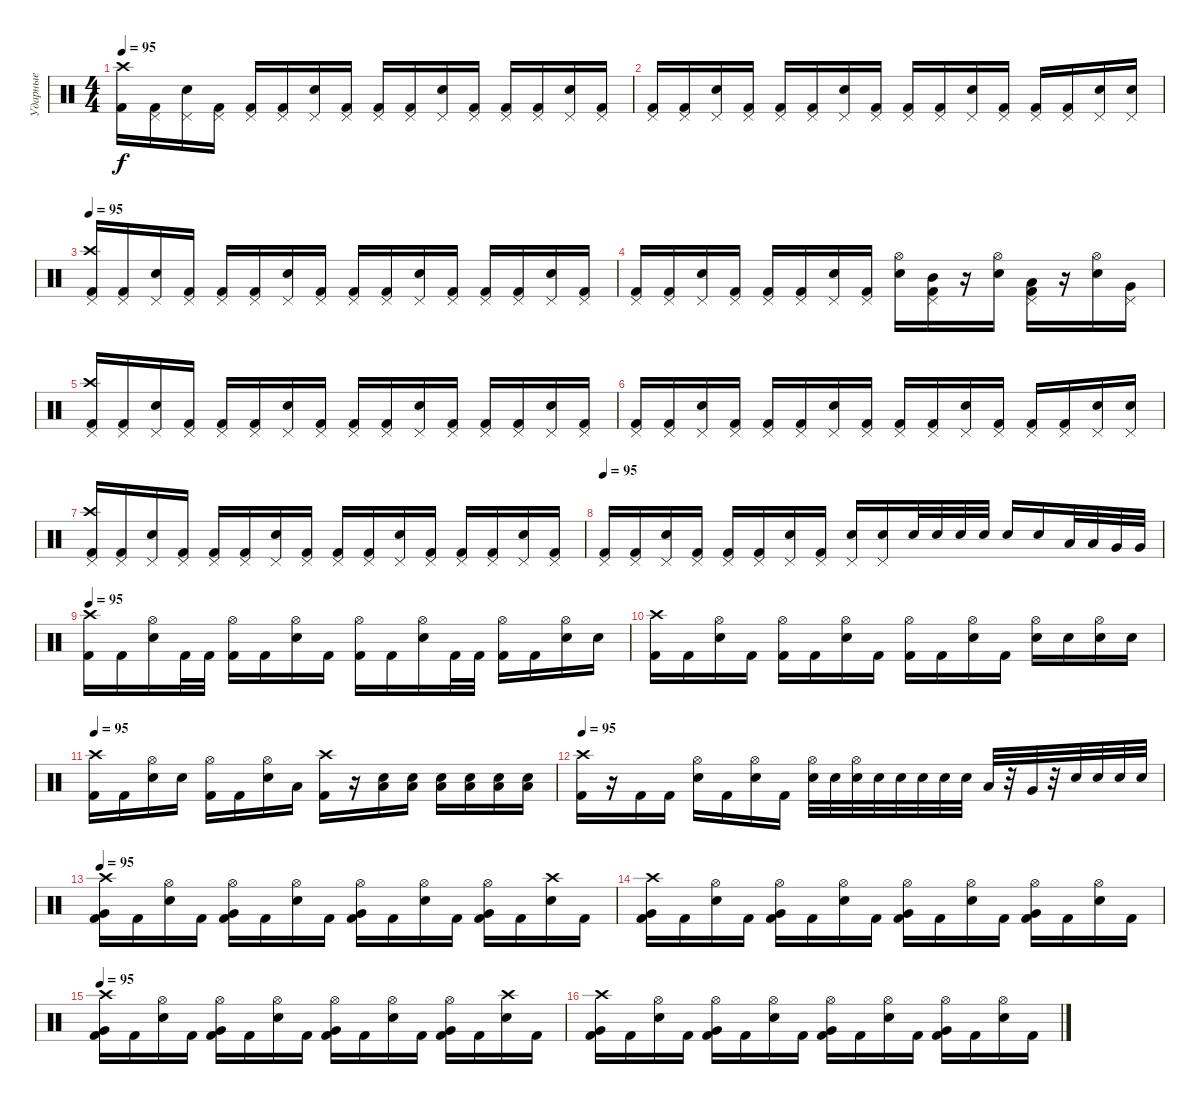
\track ("Ударные" "Ударные") {instrument percussion}
\staff {score}
\articulation defaults
\ts (4 4)
\tempo 95
\clef neutral
\ks c
("Kick (hit) 2" "Crash high (hit)").16{dy f} ("Kick (hit) 2" "Pedal Hi-Hat (hit)").16 ("Electric Snare (hit)" "Pedal Hi-Hat (hit)").16 ("Kick (hit) 2" "Pedal Hi-Hat (hit)").16 ("Kick (hit) 2" "Pedal Hi-Hat (hit)").16 ("Kick (hit) 2" "Pedal Hi-Hat (hit)").16 ("Electric Snare (hit)" "Pedal Hi-Hat (hit)").16 ("Kick (hit) 2" "Pedal Hi-Hat (hit)").16 ("Kick (hit) 2" "Pedal Hi-Hat (hit)").16 ("Kick (hit) 2" "Pedal Hi-Hat (hit)").16 ("Electric Snare (hit)" "Pedal Hi-Hat (hit)").16 ("Kick (hit) 2" "Pedal Hi-Hat (hit)").16 ("Kick (hit) 2" "Pedal Hi-Hat (hit)").16 ("Kick (hit) 2" "Pedal Hi-Hat (hit)").16 ("Electric Snare (hit)" "Pedal Hi-Hat (hit)").16 ("Kick (hit) 2" "Pedal Hi-Hat (hit)").16 |
("Kick (hit) 2" "Pedal Hi-Hat (hit)").16 ("Kick (hit) 2" "Pedal Hi-Hat (hit)").16 ("Electric Snare (hit)" "Pedal Hi-Hat (hit)").16 ("Kick (hit) 2" "Pedal Hi-Hat (hit)").16 ("Kick (hit) 2" "Pedal Hi-Hat (hit)").16 ("Kick (hit) 2" "Pedal Hi-Hat (hit)").16 ("Electric Snare (hit)" "Pedal Hi-Hat (hit)").16 ("Kick (hit) 2" "Pedal Hi-Hat (hit)").16 ("Kick (hit) 2" "Pedal Hi-Hat (hit)").16 ("Kick (hit) 2" "Pedal Hi-Hat (hit)").16 ("Electric Snare (hit)" "Pedal Hi-Hat (hit)").16 ("Kick (hit) 2" "Pedal Hi-Hat (hit)").16 ("Kick (hit) 2" "Pedal Hi-Hat (hit)").16 ("Kick (hit) 2" "Pedal Hi-Hat (hit)").16 ("Electric Snare (hit)" "Pedal Hi-Hat (hit)").16 ("Electric Snare (hit)" "Pedal Hi-Hat (hit)").16 |
\tempo 95
("Kick (hit) 2" "Pedal Hi-Hat (hit)" "Crash high (hit)").16 ("Kick (hit) 2" "Pedal Hi-Hat (hit)").16 ("Electric Snare (hit)" "Pedal Hi-Hat (hit)").16 ("Kick (hit) 2" "Pedal Hi-Hat (hit)").16 ("Kick (hit) 2" "Pedal Hi-Hat (hit)").16 ("Kick (hit) 2" "Pedal Hi-Hat (hit)").16 ("Electric Snare (hit)" "Pedal Hi-Hat (hit)").16 ("Kick (hit) 2" "Pedal Hi-Hat (hit)").16 ("Kick (hit) 2" "Pedal Hi-Hat (hit)").16 ("Kick (hit) 2" "Pedal Hi-Hat (hit)").16 ("Electric Snare (hit)" "Pedal Hi-Hat (hit)").16 ("Kick (hit) 2" "Pedal Hi-Hat (hit)").16 ("Kick (hit) 2" "Pedal Hi-Hat (hit)").16 ("Kick (hit) 2" "Pedal Hi-Hat (hit)").16 ("Electric Snare (hit)" "Pedal Hi-Hat (hit)").16 ("Kick (hit) 2" "Pedal Hi-Hat (hit)").16 |
("Kick (hit) 2" "Pedal Hi-Hat (hit)").16 ("Kick (hit) 2" "Pedal Hi-Hat (hit)").16 ("Electric Snare (hit)" "Pedal Hi-Hat (hit)").16 ("Kick (hit) 2" "Pedal Hi-Hat (hit)").16 ("Kick (hit) 2" "Pedal Hi-Hat (hit)").16 ("Kick (hit) 2" "Pedal Hi-Hat (hit)").16 ("Electric Snare (hit)" "Pedal Hi-Hat (hit)").16 ("Kick (hit) 2" "Pedal Hi-Hat (hit)").16 ("Electric Snare (hit)" "Hi-Hat (open)").16 ("Kick (hit) 2" "Mid Tom (hit)" "Pedal Hi-Hat (hit)").16 r.16 ("Electric Snare (hit)" "Hi-Hat (open)").16 ("Kick (hit) 2" "Low Tom (hit)" "Pedal Hi-Hat (hit)").16 r.16 ("Electric Snare (hit)" "Hi-Hat (open)").16 ("Very Low Tom (hit)" "Pedal Hi-Hat (hit)").16 |
("Kick (hit) 2" "Pedal Hi-Hat (hit)" "Crash high (hit)").16 ("Kick (hit) 2" "Pedal Hi-Hat (hit)").16 ("Electric Snare (hit)" "Pedal Hi-Hat (hit)").16 ("Kick (hit) 2" "Pedal Hi-Hat (hit)").16 ("Kick (hit) 2" "Pedal Hi-Hat (hit)").16 ("Kick (hit) 2" "Pedal Hi-Hat (hit)").16 ("Electric Snare (hit)" "Pedal Hi-Hat (hit)").16 ("Kick (hit) 2" "Pedal Hi-Hat (hit)").16 ("Kick (hit) 2" "Pedal Hi-Hat (hit)").16 ("Kick (hit) 2" "Pedal Hi-Hat (hit)").16 ("Electric Snare (hit)" "Pedal Hi-Hat (hit)").16 ("Kick (hit) 2" "Pedal Hi-Hat (hit)").16 ("Kick (hit) 2" "Pedal Hi-Hat (hit)").16 ("Kick (hit) 2" "Pedal Hi-Hat (hit)").16 ("Electric Snare (hit)" "Pedal Hi-Hat (hit)").16 ("Kick (hit) 2" "Pedal Hi-Hat (hit)").16 |
("Kick (hit) 2" "Pedal Hi-Hat (hit)").16 ("Kick (hit) 2" "Pedal Hi-Hat (hit)").16 ("Electric Snare (hit)" "Pedal Hi-Hat (hit)").16 ("Kick (hit) 2" "Pedal Hi-Hat (hit)").16 ("Kick (hit) 2" "Pedal Hi-Hat (hit)").16 ("Kick (hit) 2" "Pedal Hi-Hat (hit)").16 ("Electric Snare (hit)" "Pedal Hi-Hat (hit)").16 ("Kick (hit) 2" "Pedal Hi-Hat (hit)").16 ("Kick (hit) 2" "Pedal Hi-Hat (hit)").16 ("Kick (hit) 2" "Pedal Hi-Hat (hit)").16 ("Electric Snare (hit)" "Pedal Hi-Hat (hit)").16 ("Kick (hit) 2" "Pedal Hi-Hat (hit)").16 ("Kick (hit) 2" "Pedal Hi-Hat (hit)").16 ("Kick (hit) 2" "Pedal Hi-Hat (hit)").16 ("Electric Snare (hit)" "Pedal Hi-Hat (hit)").16 ("Electric Snare (hit)" "Pedal Hi-Hat (hit)").16 |
("Kick (hit) 2" "Pedal Hi-Hat (hit)" "Crash high (hit)").16 ("Kick (hit) 2" "Pedal Hi-Hat (hit)").16 ("Electric Snare (hit)" "Pedal Hi-Hat (hit)").16 ("Kick (hit) 2" "Pedal Hi-Hat (hit)").16 ("Kick (hit) 2" "Pedal Hi-Hat (hit)").16 ("Kick (hit) 2" "Pedal Hi-Hat (hit)").16 ("Electric Snare (hit)" "Pedal Hi-Hat (hit)").16 ("Kick (hit) 2" "Pedal Hi-Hat (hit)").16 ("Kick (hit) 2" "Pedal Hi-Hat (hit)").16 ("Kick (hit) 2" "Pedal Hi-Hat (hit)").16 ("Electric Snare (hit)" "Pedal Hi-Hat (hit)").16 ("Kick (hit) 2" "Pedal Hi-Hat (hit)").16 ("Kick (hit) 2" "Pedal Hi-Hat (hit)").16 ("Kick (hit) 2" "Pedal Hi-Hat (hit)").16 ("Electric Snare (hit)" "Pedal Hi-Hat (hit)").16 ("Kick (hit) 2" "Pedal Hi-Hat (hit)").16 |
\tempo 95
("Kick (hit) 2" "Pedal Hi-Hat (hit)").16 ("Kick (hit) 2" "Pedal Hi-Hat (hit)").16 ("Electric Snare (hit)" "Pedal Hi-Hat (hit)").16 ("Kick (hit) 2" "Pedal Hi-Hat (hit)").16 ("Kick (hit) 2" "Pedal Hi-Hat (hit)").16 ("Kick (hit) 2" "Pedal Hi-Hat (hit)").16 ("Electric Snare (hit)" "Pedal Hi-Hat (hit)").16 ("Kick (hit) 2" "Pedal Hi-Hat (hit)").16 ("Electric Snare (hit)" "Pedal Hi-Hat (hit)").16 ("Electric Snare (hit)" "Pedal Hi-Hat (hit)").16 "Electric Snare (hit)".32 "Electric Snare (hit)".32 "Electric Snare (hit)".32 "Electric Snare (hit)".32 "Electric Snare (hit)".16 "Electric Snare (hit)".16 "Low Tom (hit)".32 "Low Tom (hit)".32 "Very Low Tom (hit)".32 "Very Low Tom (hit)".32 |
\tempo 95
("Kick (hit) 2" "Crash high (hit)").16 "Kick (hit) 2".16 ("Electric Snare (hit)" "Hi-Hat (open)").16 "Kick (hit) 2".32 "Kick (hit) 2".32 ("Kick (hit) 2" "Hi-Hat (open)").16 "Kick (hit) 2".16 ("Electric Snare (hit)" "Hi-Hat (open)").16 "Kick (hit) 2".16 ("Kick (hit) 2" "Hi-Hat (open)").16 "Kick (hit) 2".16 ("Electric Snare (hit)" "Hi-Hat (open)").16 "Kick (hit) 2".32 "Kick (hit) 2".32 ("Kick (hit) 2" "Hi-Hat (open)").16 "Kick (hit) 2".16 ("Electric Snare (hit)" "Hi-Hat (open)").16 "Electric Snare (hit)".16 |
("Kick (hit) 2" "Crash high (hit)").16 "Kick (hit) 2".16 ("Electric Snare (hit)" "Hi-Hat (open)").16 "Kick (hit) 2".16 ("Kick (hit) 2" "Hi-Hat (open)").16 "Kick (hit) 2".16 ("Electric Snare (hit)" "Hi-Hat (open)").16 "Kick (hit) 2".16 ("Kick (hit) 2" "Hi-Hat (open)").16 "Kick (hit) 2".16 ("Electric Snare (hit)" "Hi-Hat (open)").16 "Kick (hit) 2".16 ("Electric Snare (hit)" "Hi-Hat (open)").16 "Electric Snare (hit)".16 ("Electric Snare (hit)" "Hi-Hat (open)").16 "Electric Snare (hit)".16 |
\tempo 95
("Kick (hit) 2" "Crash high (hit)").16 "Kick (hit) 2".16 ("Electric Snare (hit)" "Hi-Hat (open)").16 "Electric Snare (hit)".16 ("Kick (hit) 2" "Hi-Hat (open)").16 "Kick (hit) 2".16 ("Electric Snare (hit)" "Hi-Hat (open)").16 "Low Tom (hit)".16 ("Kick (hit) 2" "Crash high (hit)").16 r.16 ("Electric Snare (hit)" "Low Tom (hit)").16 ("Electric Snare (hit)" "Low Tom (hit)").16 ("Electric Snare (hit)" "Low Tom (hit)").16 ("Electric Snare (hit)" "Low Tom (hit)").16 ("Electric Snare (hit)" "Low Tom (hit)").16 ("Electric Snare (hit)" "Low Tom (hit)").16 |
\tempo 95
("Kick (hit) 2" "Crash high (hit)").16 r.16 "Kick (hit) 2".16 "Kick (hit) 2".16 ("Electric Snare (hit)" "Hi-Hat (open)").16 "Kick (hit) 2".16 ("Electric Snare (hit)" "Hi-Hat (open)").16 "Kick (hit) 2".16 ("Electric Snare (hit)" "Hi-Hat (open)").32 "Electric Snare (hit)".32 ("Electric Snare (hit)" "Hi-Hat (open)").32 "Electric Snare (hit)".32 "Electric Snare (hit)".32 "Electric Snare (hit)".32 "Electric Snare (hit)".32 "Electric Snare (hit)".32 "Low Tom (hit)".32 r.32 "Very Low Tom (hit)".32 r.32 "Electric Snare (hit)".32 "Electric Snare (hit)".32 "Electric Snare (hit)".32 "Electric Snare (hit)".32 |
\tempo 95
("Kick (hit) 2" "Very Low Tom (hit)" "Crash high (hit)").16 "Kick (hit) 2".16 ("Electric Snare (hit)" "Hi-Hat (open)").16 "Kick (hit) 2".16 ("Kick (hit) 2" "Very Low Tom (hit)" "Hi-Hat (open)").16 "Kick (hit) 2".16 ("Electric Snare (hit)" "Hi-Hat (open)").16 "Kick (hit) 2".16 ("Kick (hit) 2" "Very Low Tom (hit)" "Hi-Hat (open)").16 "Kick (hit) 2".16 ("Electric Snare (hit)" "Hi-Hat (open)").16 "Kick (hit) 2".16 ("Kick (hit) 2" "Very Low Tom (hit)" "Hi-Hat (open)").16 "Kick (hit) 2".16 ("Electric Snare (hit)" "Crash high (hit)").16 "Kick (hit) 2".16 |
("Kick (hit) 2" "Very Low Tom (hit)" "Crash high (hit)").16 "Kick (hit) 2".16 ("Electric Snare (hit)" "Hi-Hat (open)").16 "Kick (hit) 2".16 ("Kick (hit) 2" "Very Low Tom (hit)" "Hi-Hat (open)").16 "Kick (hit) 2".16 ("Electric Snare (hit)" "Hi-Hat (open)").16 "Kick (hit) 2".16 ("Kick (hit) 2" "Very Low Tom (hit)" "Hi-Hat (open)").16 "Kick (hit) 2".16 ("Electric Snare (hit)" "Hi-Hat (open)").16 "Kick (hit) 2".16 ("Kick (hit) 2" "Very Low Tom (hit)" "Hi-Hat (open)").16 "Kick (hit) 2".16 ("Electric Snare (hit)" "Hi-Hat (open)").16 "Kick (hit) 2".16 |
\tempo 95
("Kick (hit) 2" "Very Low Tom (hit)" "Crash high (hit)").16 "Kick (hit) 2".16 ("Electric Snare (hit)" "Hi-Hat (open)").16 "Kick (hit) 2".16 ("Kick (hit) 2" "Very Low Tom (hit)" "Hi-Hat (open)").16 "Kick (hit) 2".16 ("Electric Snare (hit)" "Hi-Hat (open)").16 "Kick (hit) 2".16 ("Kick (hit) 2" "Very Low Tom (hit)" "Hi-Hat (open)").16 "Kick (hit) 2".16 ("Electric Snare (hit)" "Hi-Hat (open)").16 "Kick (hit) 2".16 ("Kick (hit) 2" "Very Low Tom (hit)" "Hi-Hat (open)").16 "Kick (hit) 2".16 ("Electric Snare (hit)" "Crash high (hit)").16 "Kick (hit) 2".16 |
("Kick (hit) 2" "Very Low Tom (hit)" "Crash high (hit)").16 "Kick (hit) 2".16 ("Electric Snare (hit)" "Hi-Hat (open)").16 "Kick (hit) 2".16 ("Kick (hit) 2" "Very Low Tom (hit)" "Hi-Hat (open)").16 "Kick (hit) 2".16 ("Electric Snare (hit)" "Hi-Hat (open)").16 "Kick (hit) 2".16 ("Kick (hit) 2" "Very Low Tom (hit)" "Hi-Hat (open)").16 "Kick (hit) 2".16 ("Electric Snare (hit)" "Hi-Hat (open)").16 "Kick (hit) 2".16 ("Kick (hit) 2" "Very Low Tom (hit)" "Hi-Hat (open)").16 "Kick (hit) 2".16 ("Electric Snare (hit)" "Hi-Hat (open)").16 "Kick (hit) 2".16
